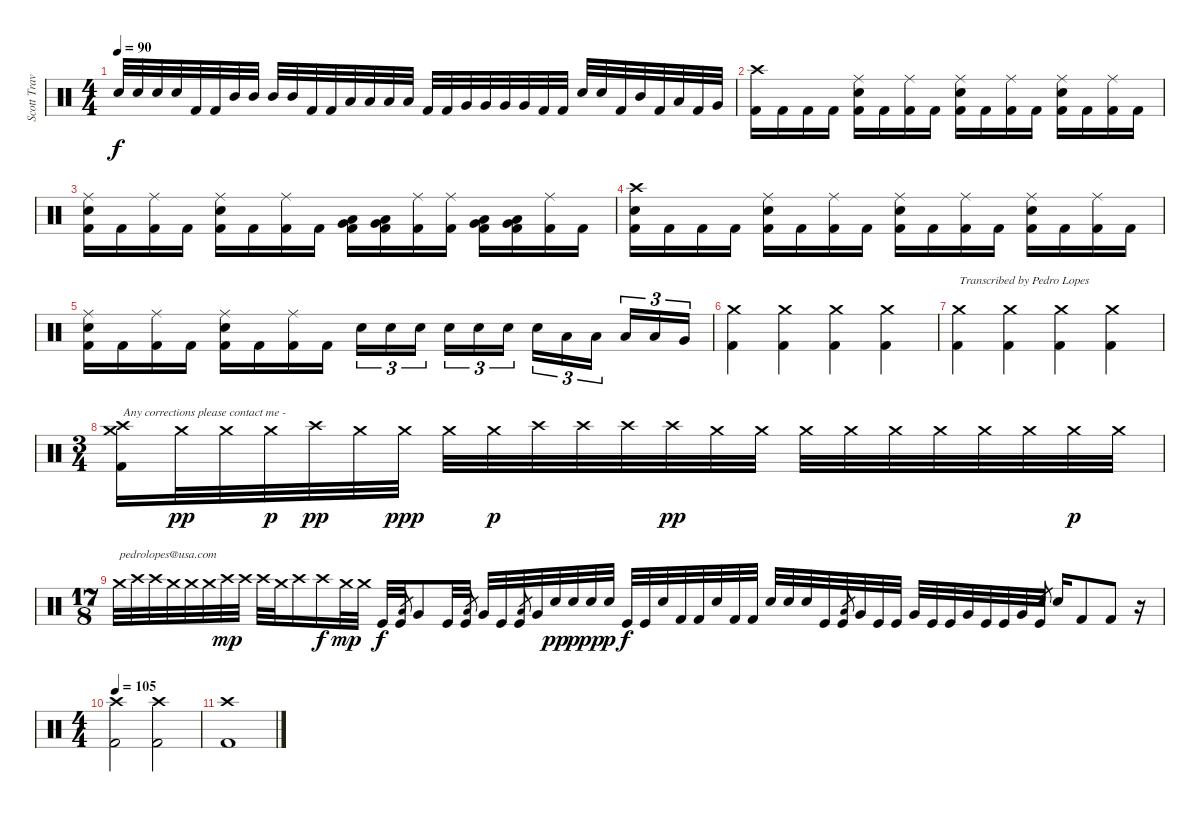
\track ("Scott Travis" "Scott Trav") {instrument percussion}
\staff {score}
\articulation defaults
\ts (4 4)
\tempo 90
\clef neutral
\ks c "Electric Snare (hit)".32{dy f} "Electric Snare (hit)".32 "Electric Snare (hit)".32 "Electric Snare (hit)".32 "Kick (hit) 2".32 "Kick (hit) 2".32 "Mid Tom (hit)".32 "Mid Tom (hit)".32 "Mid Tom (hit)".32 "Mid Tom (hit)".32 "Kick (hit) 2".32 "Kick (hit) 2".32 "Low Tom (hit)".32 "Low Tom (hit)".32 "Low Tom (hit)".32 "Low Tom (hit)".32 "Kick (hit) 2".32 "Kick (hit) 2".32 "Very Low Tom (hit)".32 "Very Low Tom (hit)".32 "Very Low Tom (hit)".32 "Very Low Tom (hit)".32 "Kick (hit) 2".32 "Kick (hit) 2".32 "Electric Snare (hit)".32 "Electric Snare (hit)".32 "Kick (hit) 2".32 "Mid Tom (hit)".32 "Kick (hit) 2".32 "Low Tom (hit)".32 "Kick (hit) 2".32 "Very Low Tom (hit)".32
|
("Kick (hit) 2" "Crash high (hit)").16 "Kick (hit) 2".16 "Kick (hit) 2".16 "Kick (hit) 2".16 ("Kick (hit) 2" "Ride (middle)" "Electric Snare (hit)").16 "Kick (hit) 2".16 ("Kick (hit) 2" "Ride (middle)").16 "Kick (hit) 2".16 ("Kick (hit) 2" "Ride (middle)" "Electric Snare (hit)").16 "Kick (hit) 2".16 ("Kick (hit) 2" "Ride (middle)").16 "Kick (hit) 2".16 ("Kick (hit) 2" "Electric Snare (hit)" "Ride (middle)").16 "Kick (hit) 2".16 ("Kick (hit) 2" "Ride (middle)").16 "Kick (hit) 2".16 |
("Kick (hit) 2" "Ride (middle)" "Electric Snare (hit)").16 "Kick (hit) 2".16 ("Kick (hit) 2" "Ride (middle)").16 "Kick (hit) 2".16 ("Kick (hit) 2" "Ride (middle)" "Electric Snare (hit)").16 "Kick (hit) 2".16 ("Kick (hit) 2" "Ride (middle)").16 "Kick (hit) 2".16 ("Kick (hit) 2" "Low Tom (hit)" "Very Low Tom (hit)").16 ("Kick (hit) 2" "Low Tom (hit)" "Very Low Tom (hit)").16 ("Kick (hit) 2" "Ride (middle)").16 ("Kick (hit) 2" "Ride (middle)").16 ("Kick (hit) 2" "Low Tom (hit)" "Very Low Tom (hit)").16 ("Kick (hit) 2" "Low Tom (hit)" "Very Low Tom (hit)").16 ("Kick (hit) 2" "Ride (middle)").16 "Kick (hit) 2".16 |
("Electric Snare (hit)" "Kick (hit) 2" "Crash high (hit)").16 "Kick (hit) 2".16 "Kick (hit) 2".16 "Kick (hit) 2".16 ("Kick (hit) 2" "Ride (middle)" "Electric Snare (hit)").16 "Kick (hit) 2".16 ("Kick (hit) 2" "Ride (middle)").16 "Kick (hit) 2".16 ("Kick (hit) 2" "Ride (middle)" "Electric Snare (hit)").16 "Kick (hit) 2".16 ("Kick (hit) 2" "Ride (middle)").16 "Kick (hit) 2".16 ("Kick (hit) 2" "Electric Snare (hit)" "Ride (middle)").16 "Kick (hit) 2".16 ("Kick (hit) 2" "Ride (middle)").16 "Kick (hit) 2".16 |
("Kick (hit) 2" "Ride (middle)" "Electric Snare (hit)").16 "Kick (hit) 2".16 ("Kick (hit) 2" "Ride (middle)").16 "Kick (hit) 2".16 ("Kick (hit) 2" "Ride (middle)" "Electric Snare (hit)").16 "Kick (hit) 2".16 ("Kick (hit) 2" "Ride (middle)").16 "Kick (hit) 2".16 "Electric Snare (hit)".16{tu (3 2)} "Electric Snare (hit)".16{tu (3 2)} "Electric Snare (hit)".16{tu (3 2)} "Electric Snare (hit)".16{tu (3 2)} "Electric Snare (hit)".16{tu (3 2)} "Electric Snare (hit)".16{tu (3 2)} "Electric Snare (hit)".16{tu (3 2)} "Low Tom (hit)".16{tu (3 2)} "Low Tom (hit)".16{tu (3 2)} "Low Tom (hit)".16{tu (3 2)} "Low Tom (hit)".16{tu (3 2)} "Very Low Tom (hit)".16{tu (3 2)} |
("Kick (hit) 2" "Crash medium (hit)").4 ("Kick (hit) 2" "Crash medium (hit)").4 ("Kick (hit) 2" "Crash medium (hit)").4 ("Kick (hit) 2" "Crash medium (hit)").4 |
("Kick (hit) 2" "Crash medium (hit)").4{txt "Transcribed by Pedro Lopes"} ("Kick (hit) 2" "Crash medium (hit)").4 ("Kick (hit) 2" "Crash medium (hit)").4 ("Kick (hit) 2" "Crash medium (hit)").4 |
\ts (3 4)
("Kick (hit) 2" "Crash medium (hit)" "Crash high (hit)").16{txt "Any corrections please contact me -"} "Crash medium (hit)".32{dy pp} "Crash medium (hit)".32 "Crash medium (hit)".32{dy p} "Crash high (hit)".32{dy pp} "Crash medium (hit)".32 "Crash medium (hit)".32{dy ppp} "Crash medium (hit)".32 "Crash medium (hit)".32{dy p} "Crash high (hit)".32 "Crash high (hit)".32 "Crash high (hit)".32 "Crash high (hit)".32{dy pp} "Crash medium (hit)".32 "Crash medium (hit)".32 "Crash medium (hit)".32 "Crash medium (hit)".32 "Crash medium (hit)".32 "Crash medium (hit)".32 "Crash medium (hit)".32 "Crash medium (hit)".32 "Crash medium (hit)".32{dy p} "Crash medium (hit)".32 |
\ts (17 8)
"Crash medium (hit)".32{txt "pedrolopes@usa.com"} "Crash high (hit)".32 "Crash high (hit)".32 "Crash medium (hit)".32 "Crash medium (hit)".32 "Crash medium (hit)".32 "Crash high (hit)".32{dy mp} "Crash high (hit)".32 "Crash high (hit)".32 "Crash medium (hit)".32 "Crash high (hit)".16 "Crash high (hit)".16{dy f} "Crash medium (hit)".32{dy mp} "Crash medium (hit)".32 "Kick (hit)".32{dy f} "Kick (hit)".32 "Low Tom (hit)".8{gr} "Very Low Tom (hit)".8 "Kick (hit)".32 "Kick (hit)".32 "Low Tom (hit)".8{gr} "Very Low Tom (hit)".32 "Kick (hit)".32 "Kick (hit)".32 "Low Tom (hit)".8{gr} "Very Low Tom (hit)".32 "Electric Snare (hit)".32{dy pp} "Electric Snare (hit)".32{dy p} "Electric Snare (hit)".32{dy pp} "Electric Snare (hit)".32{dy p} "Kick (hit)".32{dy f} "Kick (hit)".32 "Electric Snare (hit)".32 "Kick (hit) 2".32 "Kick (hit) 2".32 "Electric Snare (hit)".32 "Kick (hit) 2".32 "Kick (hit) 2".32 "Electric Snare (hit)".32 "Electric Snare (hit)".32 "Electric Snare (hit)".32 "Kick (hit)".32 "Kick (hit)".32 "Low Tom (hit)".8{gr} "Very Low Tom (hit)".32 "Kick (hit)".32 "Kick (hit)".32 "Very Low Tom (hit)".32 "Kick (hit)".32 "Kick (hit)".32 "Very Low Tom (hit)".32 "Kick (hit)".32 "Kick (hit)".32 "Very Low Tom (hit)".32 "Kick (hit)".32 "Electric Snare (hit)".8{gr} "Electric Snare (hit)".16 "Kick (hit) 2".8 "Kick (hit) 2".8 r.16 |
\ts (4 4)
\tempo 105
("Kick (hit) 2" "Crash high (hit)").2 ("Kick (hit) 2" "Crash high (hit)").2 |
("Kick (hit) 2" "Crash high (hit)").1
